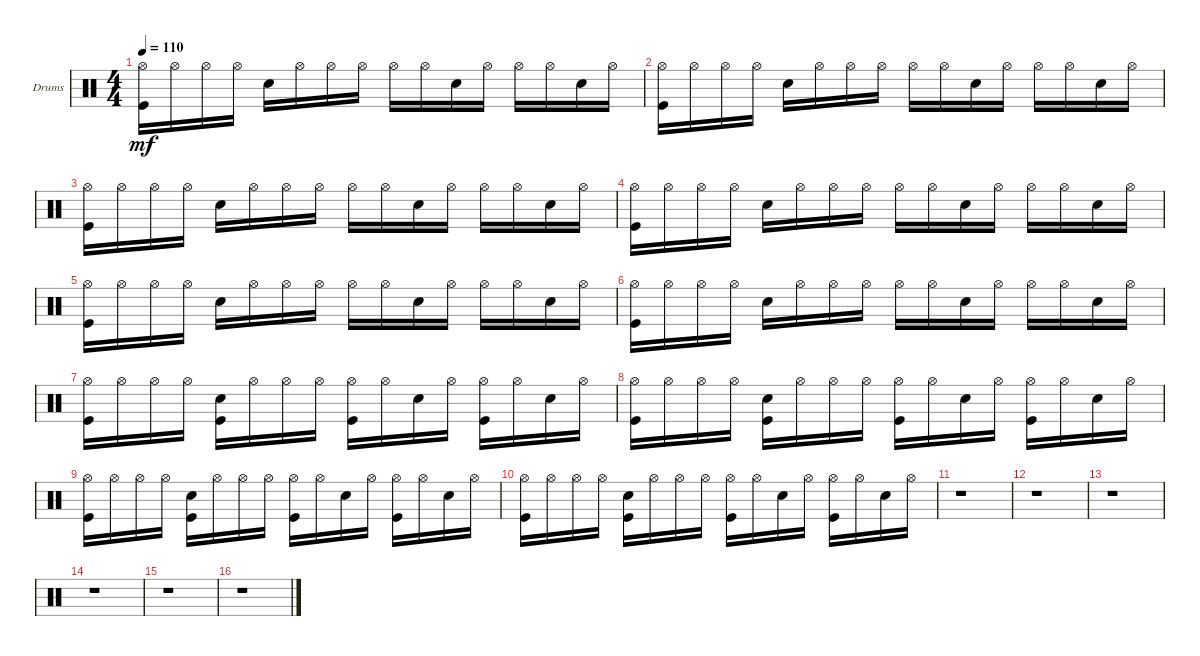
\defaultSystemsLayout 4
\bracketExtendMode groupsimilarinstruments
\firstSystemTrackNameOrientation horizontal
\otherSystemsTrackNameOrientation horizontal
\track ("Fabrizio" "Drums") {instrument percussion}
\staff {score}
\articulation defaults
\ts (4 4)
\tempo 110
\clef neutral
\ks c
("Hi-Hat (open)" "Kick (hit)").16{dy mf} "Hi-Hat (open)".16 "Hi-Hat (open)".16 "Hi-Hat (open)".16 "Snare (hit) 2".16 "Hi-Hat (open)".16 "Hi-Hat (open)".16 "Hi-Hat (open)".16 "Hi-Hat (open)".16 "Hi-Hat (open)".16 "Snare (hit) 2".16 "Hi-Hat (open)".16 "Hi-Hat (open)".16 "Hi-Hat (open)".16 "Snare (hit) 2".16 "Hi-Hat (open)".16 |
("Hi-Hat (open)" "Kick (hit)").16 "Hi-Hat (open)".16 "Hi-Hat (open)".16 "Hi-Hat (open)".16 "Snare (hit) 2".16 "Hi-Hat (open)".16 "Hi-Hat (open)".16 "Hi-Hat (open)".16 "Hi-Hat (open)".16 "Hi-Hat (open)".16 "Snare (hit) 2".16 "Hi-Hat (open)".16 "Hi-Hat (open)".16 "Hi-Hat (open)".16 "Snare (hit) 2".16 "Hi-Hat (open)".16 |
("Hi-Hat (open)" "Kick (hit)").16 "Hi-Hat (open)".16 "Hi-Hat (open)".16 "Hi-Hat (open)".16 "Snare (hit) 2".16 "Hi-Hat (open)".16 "Hi-Hat (open)".16 "Hi-Hat (open)".16 "Hi-Hat (open)".16 "Hi-Hat (open)".16 "Snare (hit) 2".16 "Hi-Hat (open)".16 "Hi-Hat (open)".16 "Hi-Hat (open)".16 "Snare (hit) 2".16 "Hi-Hat (open)".16 |
("Hi-Hat (open)" "Kick (hit)").16 "Hi-Hat (open)".16 "Hi-Hat (open)".16 "Hi-Hat (open)".16 "Snare (hit) 2".16 "Hi-Hat (open)".16 "Hi-Hat (open)".16 "Hi-Hat (open)".16 "Hi-Hat (open)".16 "Hi-Hat (open)".16 "Snare (hit) 2".16 "Hi-Hat (open)".16 "Hi-Hat (open)".16 "Hi-Hat (open)".16 "Snare (hit) 2".16 "Hi-Hat (open)".16 |
("Hi-Hat (open)" "Kick (hit)").16 "Hi-Hat (open)".16 "Hi-Hat (open)".16 "Hi-Hat (open)".16 "Snare (hit) 2".16 "Hi-Hat (open)".16 "Hi-Hat (open)".16 "Hi-Hat (open)".16 "Hi-Hat (open)".16 "Hi-Hat (open)".16 "Snare (hit) 2".16 "Hi-Hat (open)".16 "Hi-Hat (open)".16 "Hi-Hat (open)".16 "Snare (hit) 2".16 "Hi-Hat (open)".16 |
("Hi-Hat (open)" "Kick (hit)").16 "Hi-Hat (open)".16 "Hi-Hat (open)".16 "Hi-Hat (open)".16 "Snare (hit) 2".16 "Hi-Hat (open)".16 "Hi-Hat (open)".16 "Hi-Hat (open)".16 "Hi-Hat (open)".16 "Hi-Hat (open)".16 "Snare (hit) 2".16 "Hi-Hat (open)".16 "Hi-Hat (open)".16 "Hi-Hat (open)".16 "Snare (hit) 2".16 "Hi-Hat (open)".16 |
("Hi-Hat (open)" "Kick (hit)").16 "Hi-Hat (open)".16 "Hi-Hat (open)".16 "Hi-Hat (open)".16 ("Snare (hit) 2" "Kick (hit)").16 "Hi-Hat (open)".16 "Hi-Hat (open)".16 "Hi-Hat (open)".16 ("Hi-Hat (open)" "Kick (hit)").16 "Hi-Hat (open)".16 "Snare (hit) 2".16 "Hi-Hat (open)".16 ("Hi-Hat (open)" "Kick (hit)").16 "Hi-Hat (open)".16 "Snare (hit) 2".16 "Hi-Hat (open)".16 |
("Hi-Hat (open)" "Kick (hit)").16 "Hi-Hat (open)".16 "Hi-Hat (open)".16 "Hi-Hat (open)".16 ("Snare (hit) 2" "Kick (hit)").16 "Hi-Hat (open)".16 "Hi-Hat (open)".16 "Hi-Hat (open)".16 ("Hi-Hat (open)" "Kick (hit)").16 "Hi-Hat (open)".16 "Snare (hit) 2".16 "Hi-Hat (open)".16 ("Hi-Hat (open)" "Kick (hit)").16 "Hi-Hat (open)".16 "Snare (hit) 2".16 "Hi-Hat (open)".16 |
("Hi-Hat (open)" "Kick (hit)").16 "Hi-Hat (open)".16 "Hi-Hat (open)".16 "Hi-Hat (open)".16 ("Snare (hit) 2" "Kick (hit)").16 "Hi-Hat (open)".16 "Hi-Hat (open)".16 "Hi-Hat (open)".16 ("Hi-Hat (open)" "Kick (hit)").16 "Hi-Hat (open)".16 "Snare (hit) 2".16 "Hi-Hat (open)".16 ("Hi-Hat (open)" "Kick (hit)").16 "Hi-Hat (open)".16 "Snare (hit) 2".16 "Hi-Hat (open)".16 |
("Hi-Hat (open)" "Kick (hit)").16 "Hi-Hat (open)".16 "Hi-Hat (open)".16 "Hi-Hat (open)".16 ("Snare (hit) 2" "Kick (hit)").16 "Hi-Hat (open)".16 "Hi-Hat (open)".16 "Hi-Hat (open)".16 ("Hi-Hat (open)" "Kick (hit)").16 "Hi-Hat (open)".16 "Snare (hit) 2".16 "Hi-Hat (open)".16 ("Hi-Hat (open)" "Kick (hit)").16 "Hi-Hat (open)".16 "Snare (hit) 2".16 "Hi-Hat (open)".16 |
r.1 |
r.1 |
r.1 |
r.1 |
r.1 |
r.1
